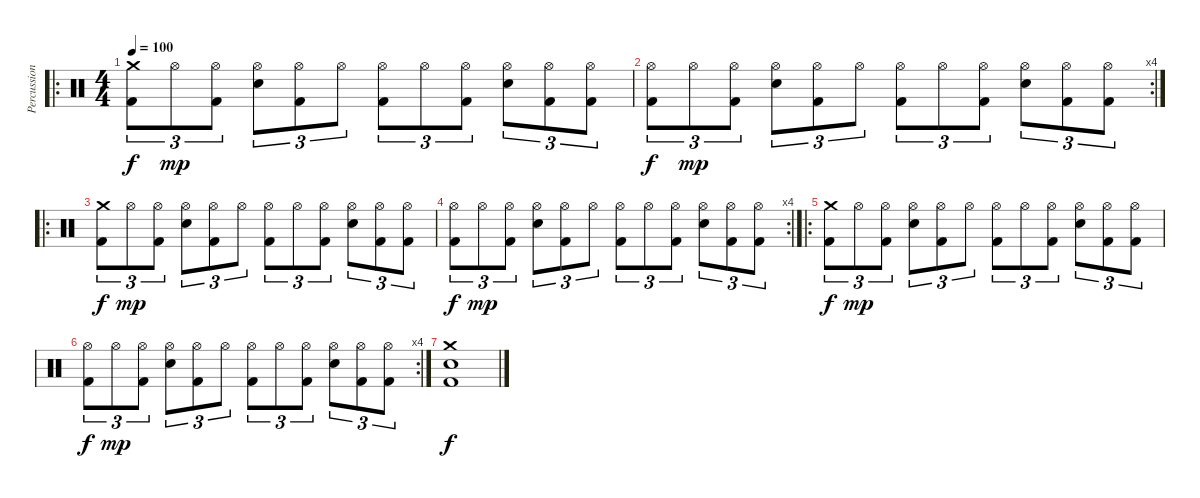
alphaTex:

\track ("Percussion" "Percussion") {instrument percussion}
\staff {score}
\articulation defaults
\ro
\ts (4 4)
\tempo 100
\clef neutral
\ks c
("Crash medium (hit)" "Kick (hit) 2").8{tu (3 2) dy f} "Hi-Hat (open)".8{tu (3 2) dy mp} ("Hi-Hat (open)" "Kick (hit) 2").8{tu (3 2)} ("Hi-Hat (open)" "Electric Snare (hit)").8{tu (3 2)} ("Hi-Hat (open)" "Kick (hit) 2").8{tu (3 2)} "Hi-Hat (open)".8{tu (3 2)} ("Hi-Hat (open)" "Kick (hit) 2").8{tu (3 2)} "Hi-Hat (open)".8{tu (3 2)} ("Hi-Hat (open)" "Kick (hit) 2").8{tu (3 2)} ("Hi-Hat (open)" "Electric Snare (hit)").8{tu (3 2)} ("Hi-Hat (open)" "Kick (hit) 2").8{tu (3 2)} ("Hi-Hat (open)" "Kick (hit) 2").8{tu (3 2)} |
\rc 4
("Hi-Hat (open)" "Kick (hit) 2").8{tu (3 2) dy f} "Hi-Hat (open)".8{tu (3 2) dy mp} ("Hi-Hat (open)" "Kick (hit) 2").8{tu (3 2)} ("Hi-Hat (open)" "Electric Snare (hit)").8{tu (3 2)} ("Hi-Hat (open)" "Kick (hit) 2").8{tu (3 2)} "Hi-Hat (open)".8{tu (3 2)} ("Hi-Hat (open)" "Kick (hit) 2").8{tu (3 2)} "Hi-Hat (open)".8{tu (3 2)} ("Hi-Hat (open)" "Kick (hit) 2").8{tu (3 2)} ("Hi-Hat (open)" "Electric Snare (hit)").8{tu (3 2)} ("Hi-Hat (open)" "Kick (hit) 2").8{tu (3 2)} ("Hi-Hat (open)" "Kick (hit) 2").8{tu (3 2)} |
\ro
("Crash medium (hit)" "Kick (hit) 2").8{tu (3 2) dy f} "Hi-Hat (open)".8{tu (3 2) dy mp} ("Hi-Hat (open)" "Kick (hit) 2").8{tu (3 2)} ("Hi-Hat (open)" "Electric Snare (hit)").8{tu (3 2)} ("Hi-Hat (open)" "Kick (hit) 2").8{tu (3 2)} "Hi-Hat (open)".8{tu (3 2)} ("Hi-Hat (open)" "Kick (hit) 2").8{tu (3 2)} "Hi-Hat (open)".8{tu (3 2)} ("Hi-Hat (open)" "Kick (hit) 2").8{tu (3 2)} ("Hi-Hat (open)" "Electric Snare (hit)").8{tu (3 2)} ("Hi-Hat (open)" "Kick (hit) 2").8{tu (3 2)} ("Hi-Hat (open)" "Kick (hit) 2").8{tu (3 2)} |
\rc 4
("Hi-Hat (open)" "Kick (hit) 2").8{tu (3 2) dy f} "Hi-Hat (open)".8{tu (3 2) dy mp} ("Hi-Hat (open)" "Kick (hit) 2").8{tu (3 2)} ("Hi-Hat (open)" "Electric Snare (hit)").8{tu (3 2)} ("Hi-Hat (open)" "Kick (hit) 2").8{tu (3 2)} "Hi-Hat (open)".8{tu (3 2)} ("Hi-Hat (open)" "Kick (hit) 2").8{tu (3 2)} "Hi-Hat (open)".8{tu (3 2)} ("Hi-Hat (open)" "Kick (hit) 2").8{tu (3 2)} ("Hi-Hat (open)" "Electric Snare (hit)").8{tu (3 2)} ("Hi-Hat (open)" "Kick (hit) 2").8{tu (3 2)} ("Hi-Hat (open)" "Kick (hit) 2").8{tu (3 2)} |
\ro
("Crash medium (hit)" "Kick (hit) 2").8{tu (3 2) dy f} "Hi-Hat (open)".8{tu (3 2) dy mp} ("Hi-Hat (open)" "Kick (hit) 2").8{tu (3 2)} ("Hi-Hat (open)" "Electric Snare (hit)").8{tu (3 2)} ("Hi-Hat (open)" "Kick (hit) 2").8{tu (3 2)} "Hi-Hat (open)".8{tu (3 2)} ("Hi-Hat (open)" "Kick (hit) 2").8{tu (3 2)} "Hi-Hat (open)".8{tu (3 2)} ("Hi-Hat (open)" "Kick (hit) 2").8{tu (3 2)} ("Hi-Hat (open)" "Electric Snare (hit)").8{tu (3 2)} ("Hi-Hat (open)" "Kick (hit) 2").8{tu (3 2)} ("Hi-Hat (open)" "Kick (hit) 2").8{tu (3 2)} |
\rc 4
("Hi-Hat (open)" "Kick (hit) 2").8{tu (3 2) dy f} "Hi-Hat (open)".8{tu (3 2) dy mp} ("Hi-Hat (open)" "Kick (hit) 2").8{tu (3 2)} ("Hi-Hat (open)" "Electric Snare (hit)").8{tu (3 2)} ("Hi-Hat (open)" "Kick (hit) 2").8{tu (3 2)} "Hi-Hat (open)".8{tu (3 2)} ("Hi-Hat (open)" "Kick (hit) 2").8{tu (3 2)} "Hi-Hat (open)".8{tu (3 2)} ("Hi-Hat (open)" "Kick (hit) 2").8{tu (3 2)} ("Hi-Hat (open)" "Electric Snare (hit)").8{tu (3 2)} ("Hi-Hat (open)" "Kick (hit) 2").8{tu (3 2)} ("Hi-Hat (open)" "Kick (hit) 2").8{tu (3 2)} |
("Crash medium (hit)" "Electric Snare (hit)" "Kick (hit) 2").1{dy f}
